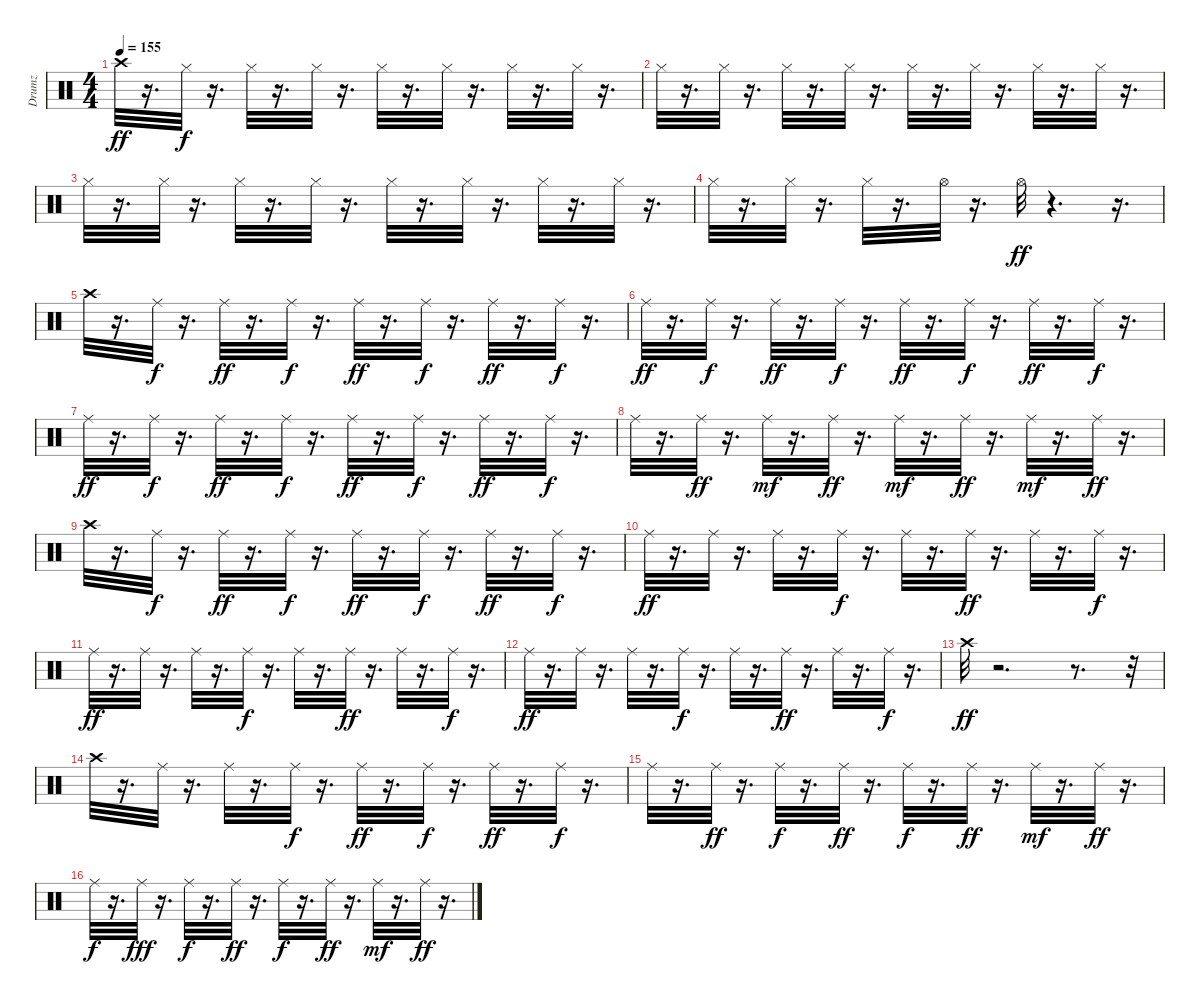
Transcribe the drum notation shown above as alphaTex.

\track ("Drumz" "Drumz") {instrument percussion}
\staff {score}
\articulation defaults
\ts (4 4)
\tempo 155
\clef neutral
\ks c "Crash high (hit)".32{dy ff}
r.16{d} "Hi-Hat (closed)".32{dy f} r.16{d} "Hi-Hat (closed)".32 r.16{d} "Hi-Hat (closed)".32 r.16{d} "Hi-Hat (closed)".32 r.16{d} "Hi-Hat (closed)".32 r.16{d} "Hi-Hat (closed)".32 r.16{d} "Hi-Hat (closed)".32 r.16{d} |
"Hi-Hat (closed)".32 r.16{d} "Hi-Hat (closed)".32 r.16{d} "Hi-Hat (closed)".32 r.16{d} "Hi-Hat (closed)".32 r.16{d} "Hi-Hat (closed)".32 r.16{d} "Hi-Hat (closed)".32 r.16{d} "Hi-Hat (closed)".32 r.16{d} "Hi-Hat (closed)".32 r.16{d} |
"Hi-Hat (closed)".32 r.16{d} "Hi-Hat (closed)".32 r.16{d} "Hi-Hat (closed)".32 r.16{d} "Hi-Hat (closed)".32 r.16{d} "Hi-Hat (closed)".32 r.16{d} "Hi-Hat (closed)".32 r.16{d} "Hi-Hat (closed)".32 r.16{d} "Hi-Hat (closed)".32 r.16{d} |
"Hi-Hat (closed)".32 r.16{d} "Hi-Hat (closed)".32 r.16{d} "Hi-Hat (closed)".32 r.16{d} "Hi-Hat (open)".32 r.16{d} "Hi-Hat (open)".32{dy ff} r.4{d} r.16{d} |
"Crash high (hit)".32 r.16{d} "Ride (middle)".32{dy f} r.16{d} "Ride (middle)".32{dy ff} r.16{d} "Ride (middle)".32{dy f} r.16{d} "Ride (middle)".32{dy ff} r.16{d} "Ride (middle)".32{dy f} r.16{d} "Ride (middle)".32{dy ff} r.16{d} "Ride (middle)".32{dy f} r.16{d} |
"Ride (middle)".32{dy ff} r.16{d} "Ride (middle)".32{dy f} r.16{d} "Ride (middle)".32{dy ff} r.16{d} "Ride (middle)".32{dy f} r.16{d} "Ride (middle)".32{dy ff} r.16{d} "Ride (middle)".32{dy f} r.16{d} "Ride (middle)".32{dy ff} r.16{d} "Ride (middle)".32{dy f} r.16{d} |
"Ride (middle)".32{dy ff} r.16{d} "Ride (middle)".32{dy f} r.16{d} "Ride (middle)".32{dy ff} r.16{d} "Ride (middle)".32{dy f} r.16{d} "Ride (middle)".32{dy ff} r.16{d} "Ride (middle)".32{dy f} r.16{d} "Ride (middle)".32{dy ff} r.16{d} "Ride (middle)".32{dy f} r.16{d} |
"Ride (middle)".32 r.16{d} "Ride (middle)".32{dy ff} r.16{d} "Ride (middle)".32{dy mf} r.16{d} "Ride (middle)".32{dy ff} r.16{d} "Ride (middle)".32{dy mf} r.16{d} "Ride (middle)".32{dy ff} r.16{d} "Ride (middle)".32{dy mf} r.16{d} "Ride (middle)".32{dy ff} r.16{d} |
"Crash high (hit)".32 r.16{d} "Ride (middle)".32{dy f} r.16{d} "Ride (middle)".32{dy ff} r.16{d} "Ride (middle)".32{dy f} r.16{d} "Ride (middle)".32{dy ff} r.16{d} "Ride (middle)".32{dy f} r.16{d} "Ride (middle)".32{dy ff} r.16{d} "Ride (middle)".32{dy f} r.16{d} |
"Ride (middle)".32{dy ff} r.16{d} "Ride (middle)".32 r.16{d} "Ride (middle)".32 r.16{d} "Ride (middle)".32{dy f} r.16{d} "Ride (middle)".32 r.16{d} "Ride (middle)".32{dy ff} r.16{d} "Ride (middle)".32 r.16{d} "Ride (middle)".32{dy f} r.16{d} |
"Ride (middle)".32{dy ff} r.16{d} "Ride (middle)".32 r.16{d} "Ride (middle)".32 r.16{d} "Ride (middle)".32{dy f} r.16{d} "Ride (middle)".32 r.16{d} "Ride (middle)".32{dy ff} r.16{d} "Ride (middle)".32 r.16{d} "Ride (middle)".32{dy f} r.16{d} |
"Ride (middle)".32{dy ff} r.16{d} "Ride (middle)".32 r.16{d} "Ride (middle)".32 r.16{d} "Ride (middle)".32{dy f} r.16{d} "Ride (middle)".32 r.16{d} "Ride (middle)".32{dy ff} r.16{d} "Ride (middle)".32 r.16{d} "Ride (middle)".32{dy f} r.16{d} |
"Crash high (hit)".32{dy ff} r.2{d} r.8{d} r.32 |
"Crash high (hit)".32 r.16{d} "Ride (middle)".32 r.16{d} "Ride (middle)".32 r.16{d} "Ride (middle)".32{dy f} r.16{d} "Ride (middle)".32{dy ff} r.16{d} "Ride (middle)".32{dy f} r.16{d} "Ride (middle)".32{dy ff} r.16{d} "Ride (middle)".32{dy f} r.16{d} |
"Ride (middle)".32 r.16{d} "Ride (middle)".32{dy ff} r.16{d} "Ride (middle)".32{dy f} r.16{d} "Ride (middle)".32{dy ff} r.16{d} "Ride (middle)".32{dy f} r.16{d} "Ride (middle)".32{dy ff} r.16{d} "Ride (middle)".32{dy mf} r.16{d} "Ride (middle)".32{dy ff} r.16{d} |
"Ride (middle)".32{dy f} r.16{d} "Ride (middle)".32{dy fff} r.16{d} "Ride (middle)".32{dy f} r.16{d} "Ride (middle)".32{dy ff} r.16{d} "Ride (middle)".32{dy f} r.16{d} "Ride (middle)".32{dy ff} r.16{d} "Ride (middle)".32{dy mf} r.16{d} "Ride (middle)".32{dy ff} r.16{d}
